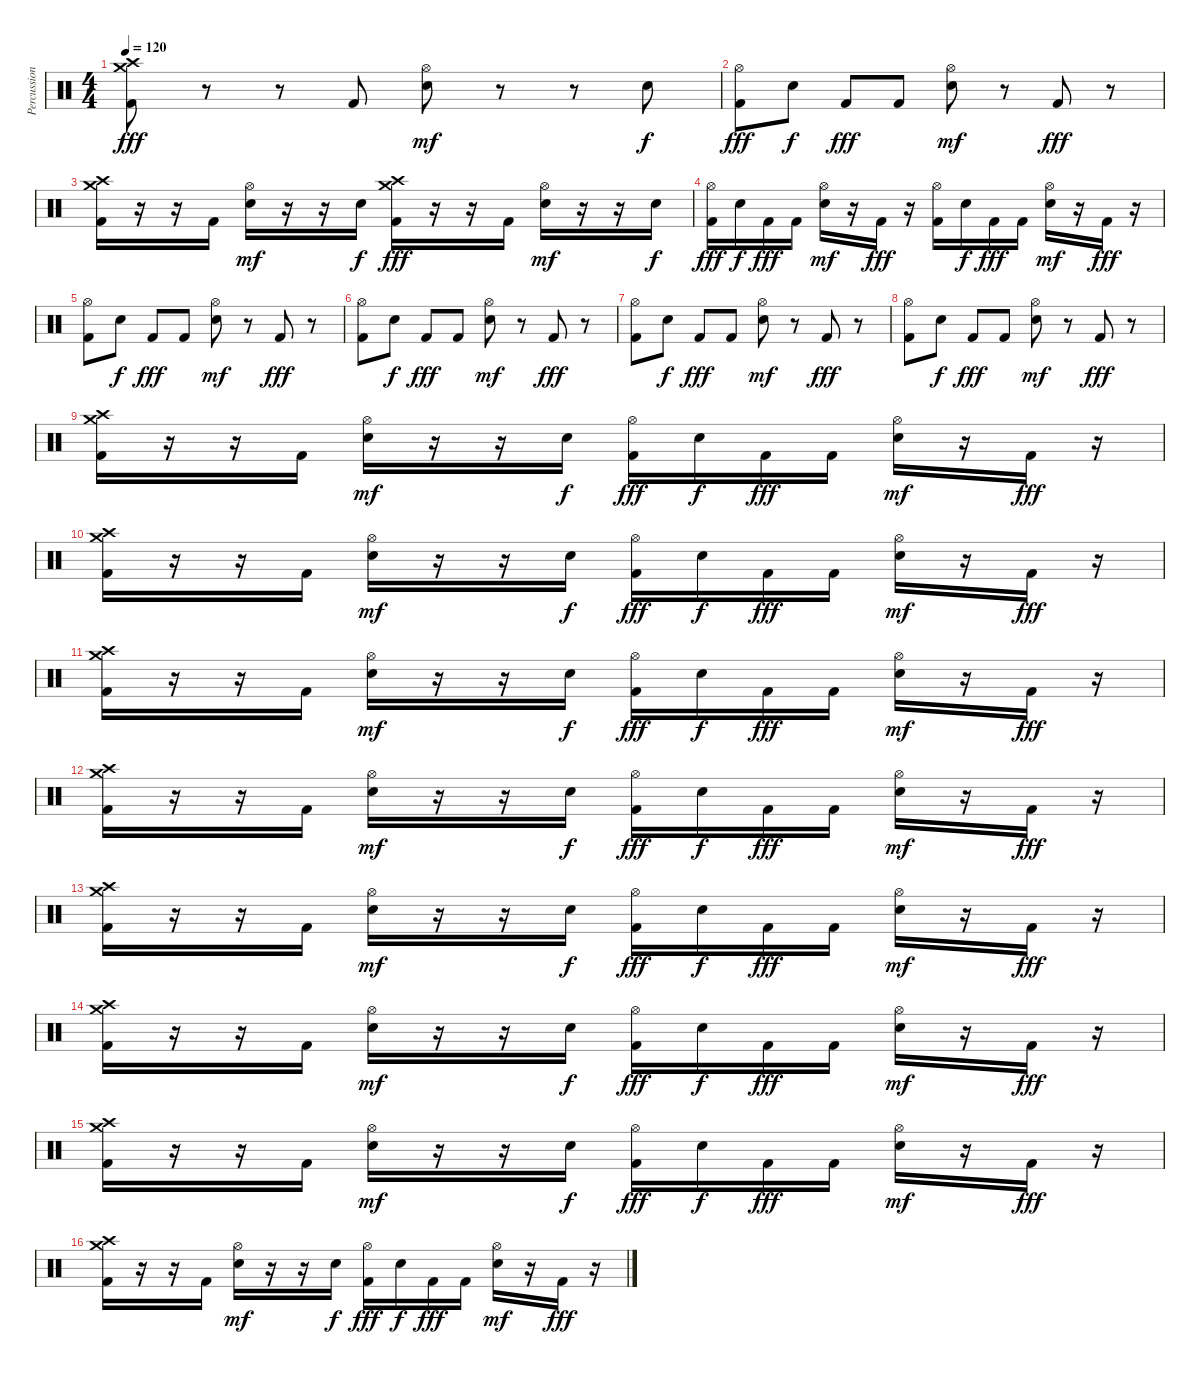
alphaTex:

\track ("Percussion" "Percussion") {instrument percussion}
\staff {score}
\articulation defaults
\ts (4 4)
\tempo 120
\clef neutral
\ks c
("Crash medium (hit)" "Crash high (hit)" "Kick (hit) 2").8{dy fff} r.8 r.8 "Kick (hit) 2".8 ("Hi-Hat (open)" "Snare (hit) 2").8{dy mf} r.8 r.8 "Snare (hit) 2".8{dy f} |
("Hi-Hat (open)" "Kick (hit) 2").8{dy fff} "Snare (hit) 2".8{dy f} "Kick (hit) 2".8{dy fff} "Kick (hit) 2".8 ("Hi-Hat (open)" "Snare (hit) 2").8{dy mf} r.8 "Kick (hit) 2".8{dy fff} r.8 |
("Crash medium (hit)" "Crash high (hit)" "Kick (hit) 2").16 r.16 r.16 "Kick (hit) 2".16 ("Hi-Hat (open)" "Snare (hit) 2").16{dy mf} r.16 r.16 "Snare (hit) 2".16{dy f} ("Crash medium (hit)" "Crash high (hit)" "Kick (hit) 2").16{dy fff} r.16 r.16 "Kick (hit) 2".16 ("Hi-Hat (open)" "Snare (hit) 2").16{dy mf} r.16 r.16 "Snare (hit) 2".16{dy f} |
("Hi-Hat (open)" "Kick (hit) 2").16{dy fff} "Snare (hit) 2".16{dy f} "Kick (hit) 2".16{dy fff} "Kick (hit) 2".16 ("Hi-Hat (open)" "Snare (hit) 2").16{dy mf} r.16 "Kick (hit) 2".16{dy fff} r.16 ("Hi-Hat (open)" "Kick (hit) 2").16 "Snare (hit) 2".16{dy f} "Kick (hit) 2".16{dy fff} "Kick (hit) 2".16 ("Hi-Hat (open)" "Snare (hit) 2").16{dy mf} r.16 "Kick (hit) 2".16{dy fff} r.16 |
("Hi-Hat (open)" "Kick (hit) 2").8 "Snare (hit) 2".8{dy f} "Kick (hit) 2".8{dy fff} "Kick (hit) 2".8 ("Hi-Hat (open)" "Snare (hit) 2").8{dy mf} r.8 "Kick (hit) 2".8{dy fff} r.8 |
("Hi-Hat (open)" "Kick (hit) 2").8 "Snare (hit) 2".8{dy f} "Kick (hit) 2".8{dy fff} "Kick (hit) 2".8 ("Hi-Hat (open)" "Snare (hit) 2").8{dy mf} r.8 "Kick (hit) 2".8{dy fff} r.8 |
("Hi-Hat (open)" "Kick (hit) 2").8 "Snare (hit) 2".8{dy f} "Kick (hit) 2".8{dy fff} "Kick (hit) 2".8 ("Hi-Hat (open)" "Snare (hit) 2").8{dy mf} r.8 "Kick (hit) 2".8{dy fff} r.8 |
("Hi-Hat (open)" "Kick (hit) 2").8 "Snare (hit) 2".8{dy f} "Kick (hit) 2".8{dy fff} "Kick (hit) 2".8 ("Hi-Hat (open)" "Snare (hit) 2").8{dy mf} r.8 "Kick (hit) 2".8{dy fff} r.8 |
("Crash medium (hit)" "Crash high (hit)" "Kick (hit) 2").16 r.16 r.16 "Kick (hit) 2".16 ("Hi-Hat (open)" "Snare (hit) 2").16{dy mf} r.16 r.16 "Snare (hit) 2".16{dy f} ("Hi-Hat (open)" "Kick (hit) 2").16{dy fff} "Snare (hit) 2".16{dy f} "Kick (hit) 2".16{dy fff} "Kick (hit) 2".16 ("Hi-Hat (open)" "Snare (hit) 2").16{dy mf} r.16 "Kick (hit) 2".16{dy fff} r.16 |
("Crash medium (hit)" "Crash high (hit)" "Kick (hit) 2").16 r.16 r.16 "Kick (hit) 2".16 ("Hi-Hat (open)" "Snare (hit) 2").16{dy mf} r.16 r.16 "Snare (hit) 2".16{dy f} ("Hi-Hat (open)" "Kick (hit) 2").16{dy fff} "Snare (hit) 2".16{dy f} "Kick (hit) 2".16{dy fff} "Kick (hit) 2".16 ("Hi-Hat (open)" "Snare (hit) 2").16{dy mf} r.16 "Kick (hit) 2".16{dy fff} r.16 |
("Crash medium (hit)" "Crash high (hit)" "Kick (hit) 2").16 r.16 r.16 "Kick (hit) 2".16 ("Hi-Hat (open)" "Snare (hit) 2").16{dy mf} r.16 r.16 "Snare (hit) 2".16{dy f} ("Hi-Hat (open)" "Kick (hit) 2").16{dy fff} "Snare (hit) 2".16{dy f} "Kick (hit) 2".16{dy fff} "Kick (hit) 2".16 ("Hi-Hat (open)" "Snare (hit) 2").16{dy mf} r.16 "Kick (hit) 2".16{dy fff} r.16 |
("Crash medium (hit)" "Crash high (hit)" "Kick (hit) 2").16 r.16 r.16 "Kick (hit) 2".16 ("Hi-Hat (open)" "Snare (hit) 2").16{dy mf} r.16 r.16 "Snare (hit) 2".16{dy f} ("Hi-Hat (open)" "Kick (hit) 2").16{dy fff} "Snare (hit) 2".16{dy f} "Kick (hit) 2".16{dy fff} "Kick (hit) 2".16 ("Hi-Hat (open)" "Snare (hit) 2").16{dy mf} r.16 "Kick (hit) 2".16{dy fff} r.16 |
("Crash medium (hit)" "Crash high (hit)" "Kick (hit) 2").16 r.16 r.16 "Kick (hit) 2".16 ("Hi-Hat (open)" "Snare (hit) 2").16{dy mf} r.16 r.16 "Snare (hit) 2".16{dy f} ("Hi-Hat (open)" "Kick (hit) 2").16{dy fff} "Snare (hit) 2".16{dy f} "Kick (hit) 2".16{dy fff} "Kick (hit) 2".16 ("Hi-Hat (open)" "Snare (hit) 2").16{dy mf} r.16 "Kick (hit) 2".16{dy fff} r.16 |
("Crash medium (hit)" "Crash high (hit)" "Kick (hit) 2").16 r.16 r.16 "Kick (hit) 2".16 ("Hi-Hat (open)" "Snare (hit) 2").16{dy mf} r.16 r.16 "Snare (hit) 2".16{dy f} ("Hi-Hat (open)" "Kick (hit) 2").16{dy fff} "Snare (hit) 2".16{dy f} "Kick (hit) 2".16{dy fff} "Kick (hit) 2".16 ("Hi-Hat (open)" "Snare (hit) 2").16{dy mf} r.16 "Kick (hit) 2".16{dy fff} r.16 |
("Crash medium (hit)" "Crash high (hit)" "Kick (hit) 2").16 r.16 r.16 "Kick (hit) 2".16 ("Hi-Hat (open)" "Snare (hit) 2").16{dy mf} r.16 r.16 "Snare (hit) 2".16{dy f} ("Hi-Hat (open)" "Kick (hit) 2").16{dy fff} "Snare (hit) 2".16{dy f} "Kick (hit) 2".16{dy fff} "Kick (hit) 2".16 ("Hi-Hat (open)" "Snare (hit) 2").16{dy mf} r.16 "Kick (hit) 2".16{dy fff} r.16 |
("Crash medium (hit)" "Crash high (hit)" "Kick (hit) 2").16 r.16 r.16 "Kick (hit) 2".16 ("Hi-Hat (open)" "Snare (hit) 2").16{dy mf} r.16 r.16 "Snare (hit) 2".16{dy f} ("Hi-Hat (open)" "Kick (hit) 2").16{dy fff} "Snare (hit) 2".16{dy f} "Kick (hit) 2".16{dy fff} "Kick (hit) 2".16 ("Hi-Hat (open)" "Snare (hit) 2").16{dy mf} r.16 "Kick (hit) 2".16{dy fff} r.16
